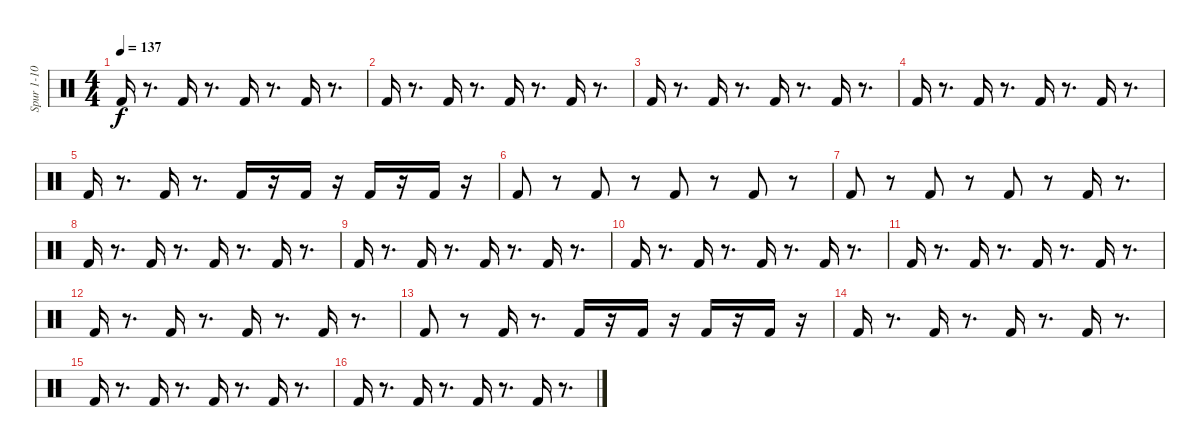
\track ("Spur 1-10" "Spur 1-10") {instrument percussion}
\staff {score}
\articulation defaults
\ts (4 4)
\tempo 137
\clef neutral
\ks c "Kick (hit) 2".16{dy f}
r.8{d} "Kick (hit) 2".16 r.8{d} "Kick (hit) 2".16 r.8{d} "Kick (hit) 2".16 r.8{d} |
"Kick (hit) 2".16 r.8{d} "Kick (hit) 2".16 r.8{d} "Kick (hit) 2".16 r.8{d} "Kick (hit) 2".16 r.8{d} |
"Kick (hit) 2".16 r.8{d} "Kick (hit) 2".16 r.8{d} "Kick (hit) 2".16 r.8{d} "Kick (hit) 2".16 r.8{d} |
"Kick (hit) 2".16 r.8{d} "Kick (hit) 2".16 r.8{d} "Kick (hit) 2".16 r.8{d} "Kick (hit) 2".16 r.8{d} |
"Kick (hit) 2".16 r.8{d} "Kick (hit) 2".16 r.8{d} "Kick (hit) 2".16 r.16 "Kick (hit) 2".16 r.16 "Kick (hit) 2".16 r.16 "Kick (hit) 2".16 r.16 |
"Kick (hit) 2".8 r.8 "Kick (hit) 2".8 r.8 "Kick (hit) 2".8 r.8 "Kick (hit) 2".8 r.8 |
"Kick (hit) 2".8 r.8 "Kick (hit) 2".8 r.8 "Kick (hit) 2".8 r.8 "Kick (hit) 2".16 r.8{d} |
"Kick (hit) 2".16 r.8{d} "Kick (hit) 2".16 r.8{d} "Kick (hit) 2".16 r.8{d} "Kick (hit) 2".16 r.8{d} |
"Kick (hit) 2".16 r.8{d} "Kick (hit) 2".16 r.8{d} "Kick (hit) 2".16 r.8{d} "Kick (hit) 2".16 r.8{d} |
"Kick (hit) 2".16 r.8{d} "Kick (hit) 2".16 r.8{d} "Kick (hit) 2".16 r.8{d} "Kick (hit) 2".16 r.8{d} |
"Kick (hit) 2".16 r.8{d} "Kick (hit) 2".16 r.8{d} "Kick (hit) 2".16 r.8{d} "Kick (hit) 2".16 r.8{d} |
"Kick (hit) 2".16 r.8{d} "Kick (hit) 2".16 r.8{d} "Kick (hit) 2".16 r.8{d} "Kick (hit) 2".16 r.8{d} |
"Kick (hit) 2".8 r.8 "Kick (hit) 2".16 r.8{d} "Kick (hit) 2".16 r.16 "Kick (hit) 2".16 r.16 "Kick (hit) 2".16 r.16 "Kick (hit) 2".16 r.16 |
"Kick (hit) 2".16 r.8{d} "Kick (hit) 2".16 r.8{d} "Kick (hit) 2".16 r.8{d} "Kick (hit) 2".16 r.8{d} |
"Kick (hit) 2".16 r.8{d} "Kick (hit) 2".16 r.8{d} "Kick (hit) 2".16 r.8{d} "Kick (hit) 2".16 r.8{d} |
"Kick (hit) 2".16 r.8{d} "Kick (hit) 2".16 r.8{d} "Kick (hit) 2".16 r.8{d} "Kick (hit) 2".16 r.8{d}
